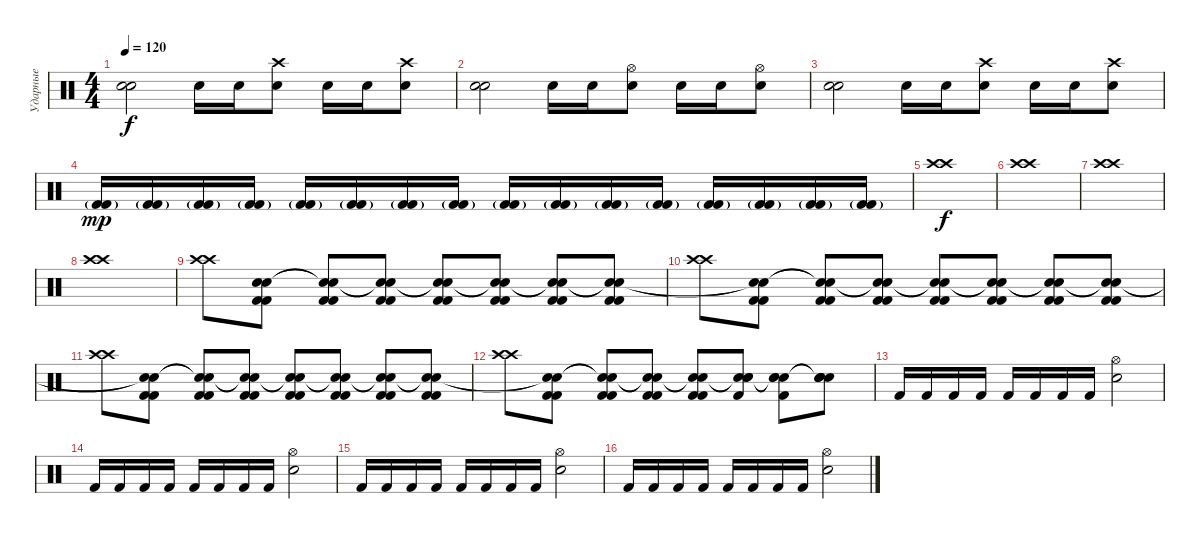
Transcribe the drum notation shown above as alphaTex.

\track ("Ударные" "Ударные") {instrument percussion}
\staff {score}
\articulation defaults
\ts (4 4)
\tempo 120
\clef neutral
\ks c
("Electric Snare (hit)" "Electric Snare (hit)").2{dy f} "Electric Snare (hit)".16 "Electric Snare (hit)".16 ("Crash high (hit)" "Electric Snare (hit)").8 "Electric Snare (hit)".16 "Electric Snare (hit)".16 ("Crash high (hit)" "Electric Snare (hit)").8 |
("Electric Snare (hit)" "Electric Snare (hit)").2 "Electric Snare (hit)".16 "Electric Snare (hit)".16 ("Hi-Hat (open)" "Electric Snare (hit)").8 "Electric Snare (hit)".16 "Electric Snare (hit)".16 ("Hi-Hat (open)" "Electric Snare (hit)").8 |
("Electric Snare (hit)" "Electric Snare (hit)").2 "Electric Snare (hit)".16 "Electric Snare (hit)".16 ("Crash high (hit)" "Electric Snare (hit)").8 "Electric Snare (hit)".16 "Electric Snare (hit)".16 ("Crash high (hit)" "Electric Snare (hit)").8 |
("Kick (hit) 2"{g} "Kick (hit) 2"{g}).16{dy mp} ("Kick (hit) 2"{g} "Kick (hit) 2"{g}).16 ("Kick (hit) 2"{g} "Kick (hit) 2"{g}).16 ("Kick (hit) 2"{g} "Kick (hit) 2"{g}).16 ("Kick (hit) 2"{g} "Kick (hit) 2"{g}).16 ("Kick (hit) 2"{g} "Kick (hit) 2"{g}).16 ("Kick (hit) 2"{g} "Kick (hit) 2"{g}).16 ("Kick (hit) 2"{g} "Kick (hit) 2"{g}).16 ("Kick (hit) 2"{g} "Kick (hit) 2"{g}).16 ("Kick (hit) 2"{g} "Kick (hit) 2"{g}).16 ("Kick (hit) 2"{g} "Kick (hit) 2"{g}).16 ("Kick (hit) 2"{g} "Kick (hit) 2"{g}).16 ("Kick (hit) 2"{g} "Kick (hit) 2"{g}).16 ("Kick (hit) 2"{g} "Kick (hit) 2"{g}).16 ("Kick (hit) 2"{g} "Kick (hit) 2"{g}).16 ("Kick (hit) 2"{g} "Kick (hit) 2"{g}).16 |
("Crash high (hit)" "Crash high (hit)").1{dy f} |
("Crash high (hit)" "Crash high (hit)").1 |
("Crash high (hit)" "Crash high (hit)").1 |
("Crash high (hit)" "Crash high (hit)").1 |
("Crash high (hit)" "Crash high (hit)").8 ("Kick (hit) 2" "Kick (hit) 2" "Snare (hit)" "Snare (hit)").8 ("Kick (hit) 2" "Kick (hit) 2" "Snare (hit)"{t} "Snare (hit)"{t}).8 ("Kick (hit) 2" "Kick (hit) 2" "Snare (hit)"{t} "Snare (hit)"{t}).8 ("Kick (hit) 2" "Kick (hit) 2" "Snare (hit)"{t} "Snare (hit)"{t}).8 ("Kick (hit) 2" "Kick (hit) 2" "Snare (hit)"{t} "Snare (hit)"{t}).8 ("Kick (hit) 2" "Kick (hit) 2" "Snare (hit)"{t} "Snare (hit)"{t}).8 ("Kick (hit) 2" "Kick (hit) 2" "Snare (hit)"{t} "Snare (hit)"{t}).8 |
("Crash high (hit)" "Crash high (hit)").8 ("Kick (hit) 2" "Kick (hit) 2" "Snare (hit)"{t} "Snare (hit)"{t}).8 ("Kick (hit) 2" "Kick (hit) 2" "Snare (hit)"{t} "Snare (hit)"{t}).8 ("Kick (hit) 2" "Kick (hit) 2" "Snare (hit)"{t} "Snare (hit)"{t}).8 ("Kick (hit) 2" "Kick (hit) 2" "Snare (hit)"{t} "Snare (hit)"{t}).8 ("Kick (hit) 2" "Kick (hit) 2" "Snare (hit)"{t} "Snare (hit)"{t}).8 ("Kick (hit) 2" "Kick (hit) 2" "Snare (hit)"{t} "Snare (hit)"{t}).8 ("Kick (hit) 2" "Kick (hit) 2" "Snare (hit)"{t} "Snare (hit)"{t}).8 |
("Crash high (hit)" "Crash high (hit)").8 ("Kick (hit) 2" "Kick (hit) 2" "Snare (hit)"{t} "Snare (hit)"{t}).8 ("Kick (hit) 2" "Kick (hit) 2" "Snare (hit)"{t} "Snare (hit)"{t}).8 ("Kick (hit) 2" "Kick (hit) 2" "Snare (hit)"{t} "Snare (hit)"{t}).8 ("Kick (hit) 2" "Kick (hit) 2" "Snare (hit)"{t} "Snare (hit)"{t}).8 ("Kick (hit) 2" "Kick (hit) 2" "Snare (hit)"{t} "Snare (hit)"{t}).8 ("Kick (hit) 2" "Kick (hit) 2" "Snare (hit)"{t} "Snare (hit)"{t}).8 ("Kick (hit) 2" "Kick (hit) 2" "Snare (hit)"{t} "Snare (hit)"{t}).8 |
("Crash high (hit)" "Crash high (hit)").8 ("Kick (hit) 2" "Kick (hit) 2" "Snare (hit)"{t} "Snare (hit)"{t}).8 ("Kick (hit) 2" "Kick (hit) 2" "Snare (hit)"{t} "Snare (hit)"{t}).8 ("Kick (hit) 2" "Kick (hit) 2" "Snare (hit)"{t} "Snare (hit)"{t}).8 ("Kick (hit) 2" "Kick (hit) 2" "Snare (hit)"{t} "Snare (hit)"{t}).8 ("Electric Snare (hit)" "Kick (hit) 2" "Snare (hit)"{t} "Snare (hit)"{t}).8 ("Kick (hit) 2" "Electric Snare (hit)" "Snare (hit)"{t} "Snare (hit)"{t}).8 ("Electric Snare (hit)" "Electric Snare (hit)" "Snare (hit)"{t} "Snare (hit)"{t}).8 |
"Kick (hit) 2".16 "Kick (hit) 2".16 "Kick (hit) 2".16 "Kick (hit) 2".16 "Kick (hit) 2".16 "Kick (hit) 2".16 "Kick (hit) 2".16 "Kick (hit) 2".16 ("Electric Snare (hit)" "Hi-Hat (open)").2 |
"Kick (hit) 2".16 "Kick (hit) 2".16 "Kick (hit) 2".16 "Kick (hit) 2".16 "Kick (hit) 2".16 "Kick (hit) 2".16 "Kick (hit) 2".16 "Kick (hit) 2".16 ("Electric Snare (hit)" "Hi-Hat (open)").2 |
"Kick (hit) 2".16 "Kick (hit) 2".16 "Kick (hit) 2".16 "Kick (hit) 2".16 "Kick (hit) 2".16 "Kick (hit) 2".16 "Kick (hit) 2".16 "Kick (hit) 2".16 ("Electric Snare (hit)" "Hi-Hat (open)").2 |
"Kick (hit) 2".16 "Kick (hit) 2".16 "Kick (hit) 2".16 "Kick (hit) 2".16 "Kick (hit) 2".16 "Kick (hit) 2".16 "Kick (hit) 2".16 "Kick (hit) 2".16 ("Electric Snare (hit)" "Hi-Hat (open)").2
